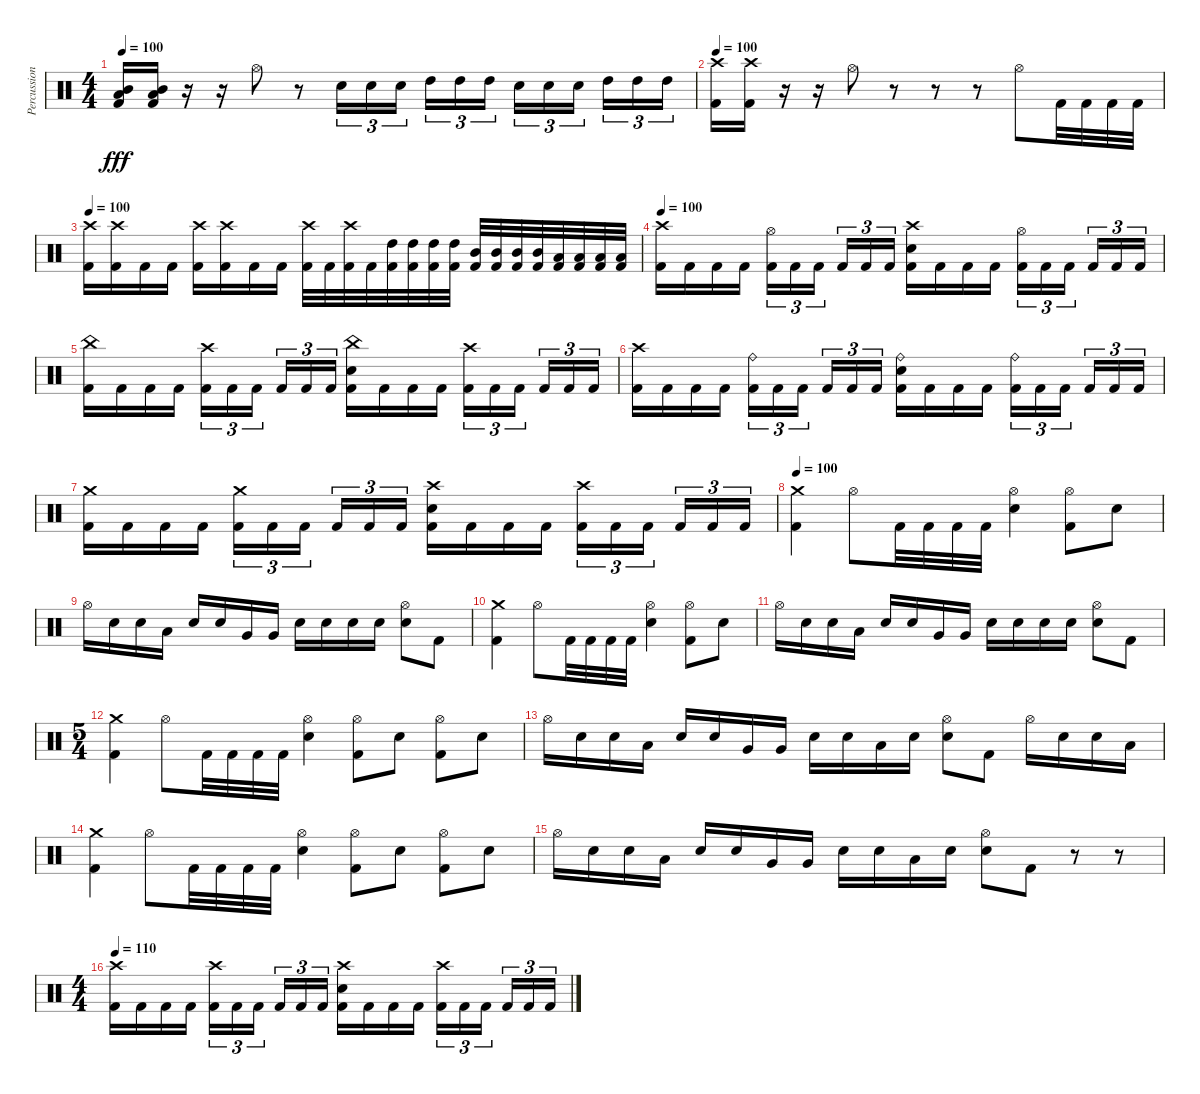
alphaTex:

\track ("Percussion" "Percussion") {instrument percussion}
\staff {score}
\articulation defaults
\ts (4 4)
\tempo 100
\clef neutral
\ks c
("Mid Tom (hit)" "Low Tom (hit)" "Kick (hit) 2").16{dy fff} ("Mid Tom (hit)" "Low Tom (hit)" "Kick (hit) 2").16 r.16 r.16 "Hi-Hat (open)".8 r.8 "Electric Snare (hit)".16{tu (3 2)} "Electric Snare (hit)".16{tu (3 2)} "Electric Snare (hit)".16{tu (3 2) beam splitsecondary} "High Tom (hit)".16{tu (3 2)} "High Tom (hit)".16{tu (3 2)} "High Tom (hit)".16{tu (3 2)} "Electric Snare (hit)".16{tu (3 2)} "Electric Snare (hit)".16{tu (3 2)} "Electric Snare (hit)".16{tu (3 2) beam splitsecondary} "High Tom (hit)".16{tu (3 2)} "High Tom (hit)".16{tu (3 2)} "High Tom (hit)".16{tu (3 2)} |
\tempo 100
("Crash high (hit)" "Kick (hit) 2").16 ("Crash high (hit)" "Kick (hit) 2").16 r.16 r.16 "Hi-Hat (open)".8 r.8 r.8 r.8 "Hi-Hat (open)".8 "Kick (hit) 2".32 "Kick (hit) 2".32 "Kick (hit) 2".32 "Kick (hit) 2".32 |
\tempo 100
("Crash high (hit)" "Kick (hit) 2").16 ("Crash high (hit)" "Kick (hit) 2").16 "Kick (hit) 2".16 "Kick (hit) 2".16 ("Crash high (hit)" "Kick (hit) 2").16 ("Crash high (hit)" "Kick (hit) 2").16 "Kick (hit) 2".16 "Kick (hit) 2".16 ("Crash high (hit)" "Kick (hit) 2").32 "Kick (hit) 2".32 ("Crash high (hit)" "Kick (hit) 2").32 "Kick (hit) 2".32 ("High Tom (hit)" "Kick (hit) 2").32 ("High Tom (hit)" "Kick (hit) 2").32 ("High Tom (hit)" "Kick (hit) 2").32 ("High Tom (hit)" "Kick (hit) 2").32 ("Mid Tom (hit)" "Kick (hit) 2").32 ("Mid Tom (hit)" "Kick (hit) 2").32 ("Mid Tom (hit)" "Kick (hit) 2").32 ("Mid Tom (hit)" "Kick (hit) 2").32 ("Low Tom (hit)" "Kick (hit) 2").32 ("Low Tom (hit)" "Kick (hit) 2").32 ("Low Tom (hit)" "Kick (hit) 2").32 ("Low Tom (hit)" "Kick (hit) 2").32 |
\tempo 100
("Crash high (hit)" "Kick (hit) 2").16 "Kick (hit) 2".16 "Kick (hit) 2".16 "Kick (hit) 2".16 ("Hi-Hat (open)" "Kick (hit) 2").16{tu (3 2)} "Kick (hit) 2".16{tu (3 2)} "Kick (hit) 2".16{tu (3 2) beam splitsecondary} "Kick (hit) 2".16{tu (3 2)} "Kick (hit) 2".16{tu (3 2)} "Kick (hit) 2".16{tu (3 2)} ("Crash high (hit)" "Electric Snare (hit)" "Kick (hit) 2").16 "Kick (hit) 2".16 "Kick (hit) 2".16 "Kick (hit) 2".16 ("Hi-Hat (open)" "Kick (hit) 2").16{tu (3 2)} "Kick (hit) 2".16{tu (3 2)} "Kick (hit) 2".16{tu (3 2) beam splitsecondary} "Kick (hit) 2".16{tu (3 2)} "Kick (hit) 2".16{tu (3 2)} "Kick (hit) 2".16{tu (3 2)} |
("China (hit)" "Kick (hit) 2").16 "Kick (hit) 2".16 "Kick (hit) 2".16 "Kick (hit) 2".16 ("Crash high (hit)" "Kick (hit) 2").16{tu (3 2)} "Kick (hit) 2".16{tu (3 2)} "Kick (hit) 2".16{tu (3 2) beam splitsecondary} "Kick (hit) 2".16{tu (3 2)} "Kick (hit) 2".16{tu (3 2)} "Kick (hit) 2".16{tu (3 2)} ("China (hit)" "Electric Snare (hit)" "Kick (hit) 2").16 "Kick (hit) 2".16 "Kick (hit) 2".16 "Kick (hit) 2".16 ("Crash high (hit)" "Kick (hit) 2").16{tu (3 2)} "Kick (hit) 2".16{tu (3 2)} "Kick (hit) 2".16{tu (3 2) beam splitsecondary} "Kick (hit) 2".16{tu (3 2)} "Kick (hit) 2".16{tu (3 2)} "Kick (hit) 2".16{tu (3 2)} |
("Crash high (hit)" "Kick (hit) 2").16 "Kick (hit) 2".16 "Kick (hit) 2".16 "Kick (hit) 2".16 ("Ride (bell)" "Kick (hit) 2").16{tu (3 2)} "Kick (hit) 2".16{tu (3 2)} "Kick (hit) 2".16{tu (3 2) beam splitsecondary} "Kick (hit) 2".16{tu (3 2)} "Kick (hit) 2".16{tu (3 2)} "Kick (hit) 2".16{tu (3 2)} ("Ride (bell)" "Electric Snare (hit)" "Kick (hit) 2").16 "Kick (hit) 2".16 "Kick (hit) 2".16 "Kick (hit) 2".16 ("Ride (bell)" "Kick (hit) 2").16{tu (3 2)} "Kick (hit) 2".16{tu (3 2)} "Kick (hit) 2".16{tu (3 2) beam splitsecondary} "Kick (hit) 2".16{tu (3 2)} "Kick (hit) 2".16{tu (3 2)} "Kick (hit) 2".16{tu (3 2)} |
("Crash medium (hit)" "Kick (hit) 2").16 "Kick (hit) 2".16 "Kick (hit) 2".16 "Kick (hit) 2".16 ("Crash medium (hit)" "Kick (hit) 2").16{tu (3 2)} "Kick (hit) 2".16{tu (3 2)} "Kick (hit) 2".16{tu (3 2) beam splitsecondary} "Kick (hit) 2".16{tu (3 2)} "Kick (hit) 2".16{tu (3 2)} "Kick (hit) 2".16{tu (3 2)} ("Crash high (hit)" "Electric Snare (hit)" "Kick (hit) 2").16 "Kick (hit) 2".16 "Kick (hit) 2".16 "Kick (hit) 2".16 ("Crash high (hit)" "Kick (hit) 2").16{tu (3 2)} "Kick (hit) 2".16{tu (3 2)} "Kick (hit) 2".16{tu (3 2) beam splitsecondary} "Kick (hit) 2".16{tu (3 2)} "Kick (hit) 2".16{tu (3 2)} "Kick (hit) 2".16{tu (3 2)} |
\tempo 100
("Kick (hit) 2" "Crash medium (hit)").4 "Hi-Hat (open)".8 "Kick (hit) 2".32 "Kick (hit) 2".32 "Kick (hit) 2".32 "Kick (hit) 2".32 ("Electric Snare (hit)" "Hi-Hat (open)").4 ("Kick (hit) 2" "Hi-Hat (open)").8 "Electric Snare (hit)".8 |
"Hi-Hat (open)".16 "Snare (hit) 2".16 "Snare (hit) 2".16 "Low Tom (hit)".16 "Snare (hit) 2".16 "Snare (hit) 2".16 "Very Low Tom (hit)".16 "Very Low Tom (hit)".16 "Snare (hit) 2".16 "Snare (hit) 2".16 "Snare (hit) 2".16 "Snare (hit) 2".16 ("Electric Snare (hit)" "Hi-Hat (open)").8 "Kick (hit) 2".8 |
("Kick (hit) 2" "Crash medium (hit)").4 "Hi-Hat (open)".8 "Kick (hit) 2".32 "Kick (hit) 2".32 "Kick (hit) 2".32 "Kick (hit) 2".32 ("Electric Snare (hit)" "Hi-Hat (open)").4 ("Kick (hit) 2" "Hi-Hat (open)").8 "Electric Snare (hit)".8 |
"Hi-Hat (open)".16 "Snare (hit) 2".16 "Snare (hit) 2".16 "Low Tom (hit)".16 "Snare (hit) 2".16 "Snare (hit) 2".16 "Very Low Tom (hit)".16 "Very Low Tom (hit)".16 "Snare (hit) 2".16 "Snare (hit) 2".16 "Snare (hit) 2".16 "Snare (hit) 2".16 ("Electric Snare (hit)" "Hi-Hat (open)").8 "Kick (hit) 2".8 |
\ts (5 4)
("Kick (hit) 2" "Crash medium (hit)").4 "Hi-Hat (open)".8 "Kick (hit) 2".32 "Kick (hit) 2".32 "Kick (hit) 2".32 "Kick (hit) 2".32 ("Electric Snare (hit)" "Hi-Hat (open)").4 ("Kick (hit) 2" "Hi-Hat (open)").8 "Electric Snare (hit)".8 ("Kick (hit) 2" "Hi-Hat (open)").8 "Electric Snare (hit)".8 |
"Hi-Hat (open)".16 "Electric Snare (hit)".16 "Electric Snare (hit)".16 "Low Tom (hit)".16 "Electric Snare (hit)".16 "Electric Snare (hit)".16 "Very Low Tom (hit)".16 "Very Low Tom (hit)".16 "Electric Snare (hit)".16 "Electric Snare (hit)".16 "Low Tom (hit)".16 "Snare (hit) 2".16 ("Electric Snare (hit)" "Hi-Hat (open)").8 "Kick (hit) 2".8 "Hi-Hat (open)".16 "Electric Snare (hit)".16 "Electric Snare (hit)".16 "Low Tom (hit)".16 |
("Kick (hit) 2" "Crash medium (hit)").4 "Hi-Hat (open)".8 "Kick (hit) 2".32 "Kick (hit) 2".32 "Kick (hit) 2".32 "Kick (hit) 2".32 ("Electric Snare (hit)" "Hi-Hat (open)").4 ("Kick (hit) 2" "Hi-Hat (open)").8 "Electric Snare (hit)".8 ("Kick (hit) 2" "Hi-Hat (open)").8 "Electric Snare (hit)".8 |
"Hi-Hat (open)".16 "Electric Snare (hit)".16 "Electric Snare (hit)".16 "Low Tom (hit)".16 "Electric Snare (hit)".16 "Electric Snare (hit)".16 "Very Low Tom (hit)".16 "Very Low Tom (hit)".16 "Electric Snare (hit)".16 "Electric Snare (hit)".16 "Low Tom (hit)".16 "Snare (hit) 2".16 ("Electric Snare (hit)" "Hi-Hat (open)").8 "Kick (hit) 2".8 r.8 r.8 |
\ts (4 4)
\tempo 110
("Crash high (hit)" "Kick (hit) 2").16 "Kick (hit) 2".16 "Kick (hit) 2".16 "Kick (hit) 2".16 ("Crash high (hit)" "Kick (hit) 2").16{tu (3 2)} "Kick (hit) 2".16{tu (3 2)} "Kick (hit) 2".16{tu (3 2) beam splitsecondary} "Kick (hit) 2".16{tu (3 2)} "Kick (hit) 2".16{tu (3 2)} "Kick (hit) 2".16{tu (3 2)} ("Crash high (hit)" "Electric Snare (hit)" "Kick (hit) 2").16 "Kick (hit) 2".16 "Kick (hit) 2".16 "Kick (hit) 2".16 ("Crash high (hit)" "Kick (hit) 2").16{tu (3 2)} "Kick (hit) 2".16{tu (3 2)} "Kick (hit) 2".16{tu (3 2) beam splitsecondary} "Kick (hit) 2".16{tu (3 2)} "Kick (hit) 2".16{tu (3 2)} "Kick (hit) 2".16{tu (3 2)}
